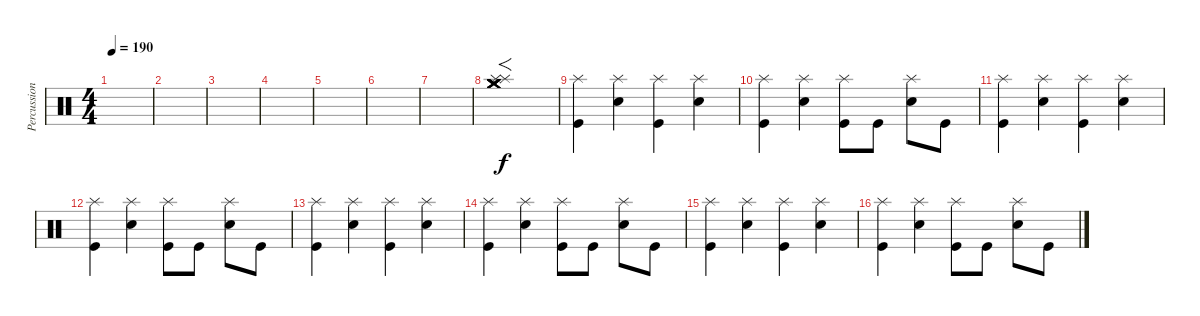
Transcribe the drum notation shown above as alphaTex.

\track ("Percussion" "Percussion") {instrument percussion}
\staff {score}
\articulation defaults
\ts (4 4)
\tempo 190
\clef neutral
\ks c
|
|
|
|
|
|
|
("Crash medium (hit)" "Crash medium (hit)" "Crash medium (hit)" "Crash medium (hit)" "Splash (hit)" "Splash (hit)").1{f} |
("Splash (hit)" "Kick (hit)").4 ("Splash (hit)" "Electric Snare (hit)").4 ("Splash (hit)" "Kick (hit)").4 ("Splash (hit)" "Electric Snare (hit)").4 |
("Splash (hit)" "Kick (hit)").4 ("Splash (hit)" "Electric Snare (hit)").4 ("Splash (hit)" "Kick (hit)").8 "Kick (hit)".8 ("Splash (hit)" "Electric Snare (hit)").8 "Kick (hit)".8 |
("Splash (hit)" "Kick (hit)").4 ("Splash (hit)" "Electric Snare (hit)").4 ("Splash (hit)" "Kick (hit)").4 ("Splash (hit)" "Electric Snare (hit)").4 |
("Splash (hit)" "Kick (hit)").4 ("Splash (hit)" "Electric Snare (hit)").4 ("Splash (hit)" "Kick (hit)").8 "Kick (hit)".8 ("Splash (hit)" "Electric Snare (hit)").8 "Kick (hit)".8 |
("Splash (hit)" "Kick (hit)").4 ("Splash (hit)" "Electric Snare (hit)").4 ("Splash (hit)" "Kick (hit)").4 ("Splash (hit)" "Electric Snare (hit)").4 |
("Splash (hit)" "Kick (hit)").4 ("Splash (hit)" "Electric Snare (hit)").4 ("Splash (hit)" "Kick (hit)").8 "Kick (hit)".8 ("Splash (hit)" "Electric Snare (hit)").8 "Kick (hit)".8 |
("Splash (hit)" "Kick (hit)").4 ("Splash (hit)" "Electric Snare (hit)").4 ("Splash (hit)" "Kick (hit)").4 ("Splash (hit)" "Electric Snare (hit)").4 |
("Splash (hit)" "Kick (hit)").4 ("Splash (hit)" "Electric Snare (hit)").4 ("Splash (hit)" "Kick (hit)").8 "Kick (hit)".8 ("Splash (hit)" "Electric Snare (hit)").8 "Kick (hit)".8
